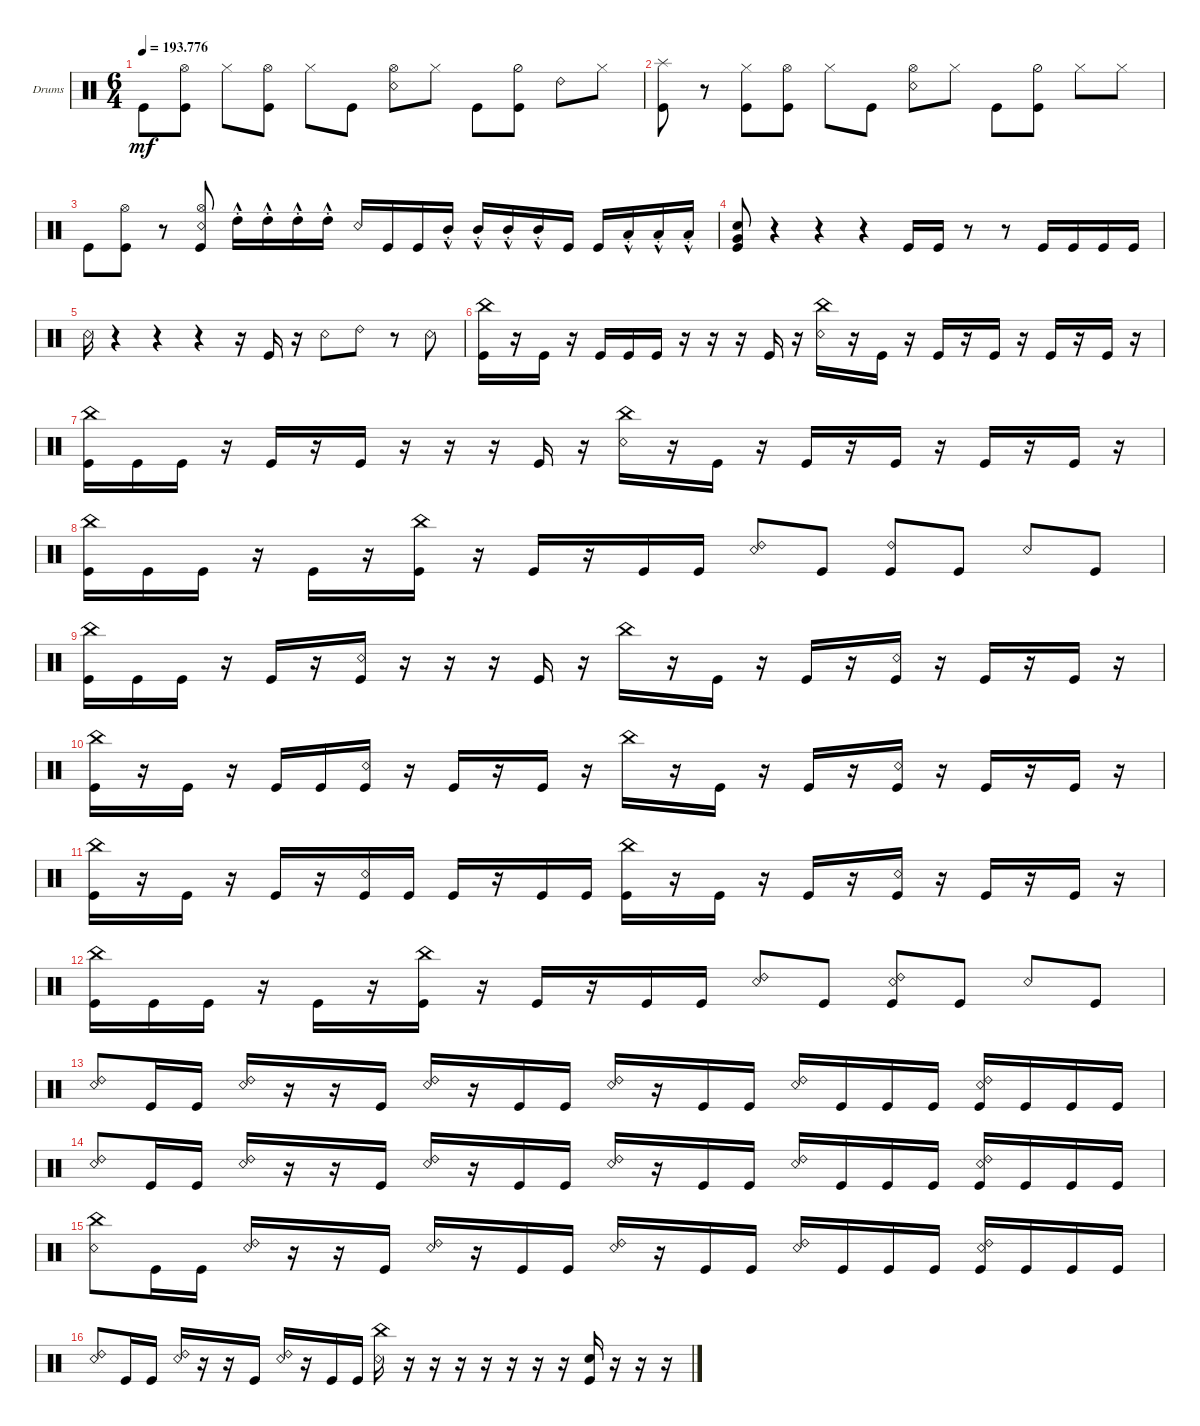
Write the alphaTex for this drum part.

\defaultSystemsLayout 4
\bracketExtendMode groupsimilarinstruments
\firstSystemTrackNameOrientation horizontal
\otherSystemsTrackNameOrientation horizontal
\track ("Drumkit" "Drums") {multiBarRest instrument percussion}
\staff {score}
\articulation defaults
\ts (6 4)
\tempo
193.776
\accidentals auto
\clef neutral
\ottava regular
\simile none
\scale
0.333333
\ks c "Kick (hit)".8{dy mf}
("Kick (hit)" "Hi-Hat (open)").8 "Hi-Hat (closed)".8 ("Kick (hit)" "Hi-Hat (open)").8 "Hi-Hat (closed)".8 "Kick (hit)".8 ("Snare (rim shot)" "Hi-Hat (open)").8 "Hi-Hat (closed)".8 "Kick (hit)".8 ("Kick (hit)" "Hi-Hat (half)").8 "Ride (bell) 2".8 "Hi-Hat (closed)".8 |
\scale
0.333333 ("Kick (hit)" "Splash (hit)").8 r.8 ("Hi-Hat (closed)" "Kick (hit)").8 ("Kick (hit)" "Hi-Hat (open)").8 "Hi-Hat (closed)".8 "Kick (hit)".8 ("Snare (rim shot)" "Hi-Hat (open)").8 "Hi-Hat (closed)".8 "Kick (hit)".8 ("Kick (hit)" "Hi-Hat (half)").8 "Hi-Hat (closed)".8 "Hi-Hat (closed)".8 |
\scale
0.333333 "Kick (hit)".8 ("Kick (hit)" "Hi-Hat (open)").8 r.8 ("Kick (hit)" "Hi-Hat (open)" "Snare (rim shot)").8 "High Tom (hit)"{hac st}.16 "High Tom (hit)"{hac st}.16 "High Tom (hit)"{hac st}.16 "High Tom (hit)"{hac st}.16 "Snare (rim shot)".16 "Kick (hit)".16 "Kick (hit)".16 "Mid Tom (hit)"{hac st}.16 "Mid Tom (hit)"{hac st}.16 "Mid Tom (hit)"{hac st}.16 "Mid Tom (hit)"{hac st}.16 "Kick (hit)".16 "Kick (hit)".16 "Low Tom (hit)"{hac st}.16 "Low Tom (hit)"{hac st}.16 "Low Tom (hit)"{hac st}.16 |
\scale
0.333333 ("Kick (hit)" "Very Low Tom (hit)" "Snare (hit) 2").8 r.4 r.4 r.4 "Kick (hit)".16 "Kick (hit)".16 r.8 r.8 "Kick (hit)".16 "Kick (hit)".16 "Kick (hit)".16 "Kick (hit)".16 |
"Snare (rim shot)".16 r.4 r.4 r.4 r.16 "Kick (hit)".16 r.16 "Snare (rim shot)".8 "Ride (bell) 2".8 r.8 "Snare (rim shot)".8 |
\scale
0.333333 ("Kick (hit)" "China (hit)").16 r.16 "Kick (hit)".16 r.16 "Kick (hit)".16 "Kick (hit)".16 "Kick (hit)".16 r.16 r.16 r.16 "Kick (hit)".16 r.16 ("Snare (rim shot)" "China (hit)").16 r.16 "Kick (hit)".16 r.16 "Kick (hit)".16 r.16 "Kick (hit)".16 r.16 "Kick (hit)".16 r.16 "Kick (hit)".16 r.16 |
\scale
0.333333 ("Kick (hit)" "China (hit)").16 "Kick (hit)".16 "Kick (hit)".16 r.16 "Kick (hit)".16 r.16 "Kick (hit)".16 r.16 r.16 r.16 "Kick (hit)".16 r.16 ("Snare (rim shot)" "China (hit)").16 r.16 "Kick (hit)".16 r.16 "Kick (hit)".16 r.16 "Kick (hit)".16 r.16 "Kick (hit)".16 r.16 "Kick (hit)".16 r.16 |
\scale
0.333333 ("Kick (hit)" "China (hit)").16 "Kick (hit)".16 "Kick (hit)".16 r.16 "Kick (hit)".16 r.16 ("Kick (hit)" "China (hit)").16 r.16 "Kick (hit)".16 r.16 "Kick (hit)".16 "Kick (hit)".16 ("Snare (rim shot)" "Ride (bell) 2").8 "Kick (hit)".8 ("Ride (bell) 2" "Kick (hit)").8 "Kick (hit)".8 "Snare (rim shot)".8 "Kick (hit)".8 |
\scale
0.333333 ("Kick (hit)" "China (hit)").16 "Kick (hit)".16 "Kick (hit)".16 r.16 "Kick (hit)".16 r.16 ("Kick (hit)" "Snare (rim shot)").16 r.16 r.16 r.16 "Kick (hit)".16 r.16 "China (hit)".16 r.16 "Kick (hit)".16 r.16 "Kick (hit)".16 r.16 ("Kick (hit)" "Snare (rim shot)").16 r.16 "Kick (hit)".16 r.16 "Kick (hit)".16 r.16 |
\scale
0.333333 ("Kick (hit)" "China (hit)").16 r.16 "Kick (hit)".16 r.16 "Kick (hit)".16 "Kick (hit)".16 ("Kick (hit)" "Snare (rim shot)").16 r.16 "Kick (hit)".16 r.16 "Kick (hit)".16 r.16 "China (hit)".16 r.16 "Kick (hit)".16 r.16 "Kick (hit)".16 r.16 ("Kick (hit)" "Snare (rim shot)").16 r.16 "Kick (hit)".16 r.16 "Kick (hit)".16 r.16 |
\scale
0.333333 ("Kick (hit)" "China (hit)").16 r.16 "Kick (hit)".16 r.16 "Kick (hit)".16 r.16 ("Kick (hit)" "Snare (rim shot)").16 "Kick (hit)".16 "Kick (hit)".16 r.16 "Kick (hit)".16 "Kick (hit)".16 ("Kick (hit)" "China (hit)").16 r.16 "Kick (hit)".16 r.16 "Kick (hit)".16 r.16 ("Kick (hit)" "Snare (rim shot)").16 r.16 "Kick (hit)".16 r.16 "Kick (hit)".16 r.16 |
\scale
0.333333 ("Kick (hit)" "China (hit)").16 "Kick (hit)".16 "Kick (hit)".16 r.16 "Kick (hit)".16 r.16 ("Kick (hit)" "China (hit)").16 r.16 "Kick (hit)".16 r.16 "Kick (hit)".16 "Kick (hit)".16 ("Snare (rim shot)" "Ride (bell) 2").8 "Kick (hit)".8 ("Ride (bell) 2" "Kick (hit)" "Snare (rim shot)").8 "Kick (hit)".8 "Snare (rim shot)".8 "Kick (hit)".8 |
\scale
0.333333 ("Snare (rim shot)" "Ride (bell) 2").8 "Kick (hit)".16 "Kick (hit)".16 ("Snare (rim shot)" "Ride (bell) 2").16 r.16 r.16 "Kick (hit)".16 ("Ride (bell) 2" "Snare (rim shot)").16 r.16 "Kick (hit)".16 "Kick (hit)".16 ("Snare (rim shot)" "Ride (bell) 2").16 r.16 "Kick (hit)".16 "Kick (hit)".16 ("Snare (rim shot)" "Ride (bell) 2").16 "Kick (hit)".16 "Kick (hit)".16 "Kick (hit)".16 ("Kick (hit)" "Snare (rim shot)" "Ride (bell) 2").16 "Kick (hit)".16 "Kick (hit)".16 "Kick (hit)".16 |
\scale
0.333333 ("Snare (rim shot)" "Ride (bell) 2").8 "Kick (hit)".16 "Kick (hit)".16 ("Snare (rim shot)" "Ride (bell) 2").16 r.16 r.16 "Kick (hit)".16 ("Ride (bell) 2" "Snare (rim shot)").16 r.16 "Kick (hit)".16 "Kick (hit)".16 ("Snare (rim shot)" "Ride (bell) 2").16 r.16 "Kick (hit)".16 "Kick (hit)".16 ("Snare (rim shot)" "Ride (bell) 2").16 "Kick (hit)".16 "Kick (hit)".16 "Kick (hit)".16 ("Kick (hit)" "Snare (rim shot)" "Ride (bell) 2").16 "Kick (hit)".16 "Kick (hit)".16 "Kick (hit)".16 |
\scale
0.333333 ("Snare (rim shot)" "China (hit)").8 "Kick (hit)".16 "Kick (hit)".16 ("Snare (rim shot)" "Ride (bell) 2").16 r.16 r.16 "Kick (hit)".16 ("Ride (bell) 2" "Snare (rim shot)").16 r.16 "Kick (hit)".16 "Kick (hit)".16 ("Snare (rim shot)" "Ride (bell) 2").16 r.16 "Kick (hit)".16 "Kick (hit)".16 ("Snare (rim shot)" "Ride (bell) 2").16 "Kick (hit)".16 "Kick (hit)".16 "Kick (hit)".16 ("Kick (hit)" "Snare (rim shot)" "Ride (bell) 2").16 "Kick (hit)".16 "Kick (hit)".16 "Kick (hit)".16 |
\scale
0.333333 ("Snare (rim shot)" "Ride (bell) 2").8 "Kick (hit)".16 "Kick (hit)".16 ("Snare (rim shot)" "Ride (bell) 2").16 r.16 r.16 "Kick (hit)".16 ("Ride (bell) 2" "Snare (rim shot)").16 r.16 "Kick (hit)".16 "Kick (hit)".16 ("Snare (rim shot)" "China (hit)").16 r.16 r.16 r.16 r.16 r.16 r.16 r.16 ("Snare (hit) 2" "Kick (hit)").16 r.16 r.16 r.16
